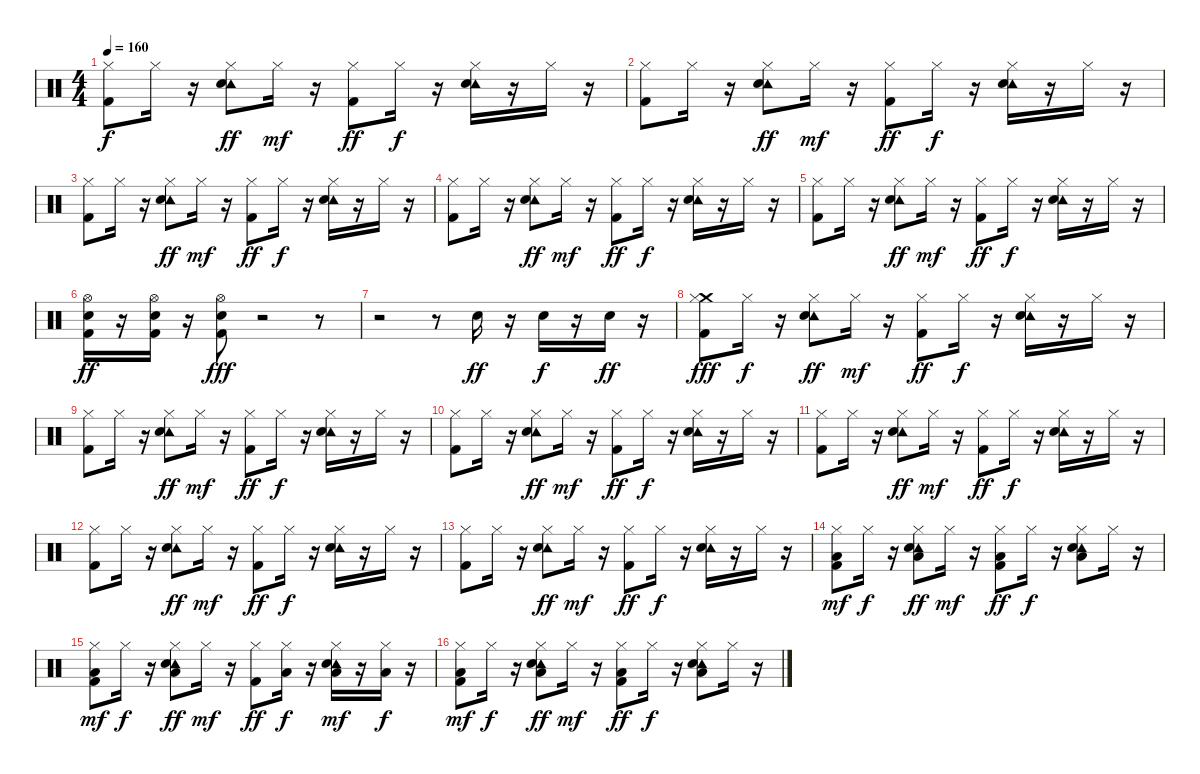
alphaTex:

\track "" {instrument percussion}
\staff {score}
\articulation defaults
\ts (4 4)
\tempo 160
\clef neutral
\ks c
("Hi-Hat (closed)" "Kick (hit) 2").8{dy f} "Hi-Hat (closed)".16 r.16 ("Tambourine (hit)" "Hi-Hat (closed)" "Snare (hit) 2").8{dy ff} "Hi-Hat (closed)".16{dy mf} r.16 ("Hi-Hat (closed)" "Kick (hit) 2").8{dy ff} "Hi-Hat (closed)".16{dy f} r.16 ("Tambourine (hit)" "Hi-Hat (closed)" "Snare (hit) 2").16 r.16 "Hi-Hat (closed)".16 r.16 |
("Hi-Hat (closed)" "Kick (hit) 2").8 "Hi-Hat (closed)".16 r.16 ("Tambourine (hit)" "Hi-Hat (closed)" "Snare (hit) 2").8{dy ff} "Hi-Hat (closed)".16{dy mf} r.16 ("Hi-Hat (closed)" "Kick (hit) 2").8{dy ff} "Hi-Hat (closed)".16{dy f} r.16 ("Tambourine (hit)" "Hi-Hat (closed)" "Snare (hit) 2").16 r.16 "Hi-Hat (closed)".16 r.16 |
("Hi-Hat (closed)" "Kick (hit) 2").8 "Hi-Hat (closed)".16 r.16 ("Tambourine (hit)" "Hi-Hat (closed)" "Snare (hit) 2").8{dy ff} "Hi-Hat (closed)".16{dy mf} r.16 ("Hi-Hat (closed)" "Kick (hit) 2").8{dy ff} "Hi-Hat (closed)".16{dy f} r.16 ("Tambourine (hit)" "Hi-Hat (closed)" "Snare (hit) 2").16 r.16 "Hi-Hat (closed)".16 r.16 |
("Hi-Hat (closed)" "Kick (hit) 2").8 "Hi-Hat (closed)".16 r.16 ("Tambourine (hit)" "Hi-Hat (closed)" "Snare (hit) 2").8{dy ff} "Hi-Hat (closed)".16{dy mf} r.16 ("Hi-Hat (closed)" "Kick (hit) 2").8{dy ff} "Hi-Hat (closed)".16{dy f} r.16 ("Tambourine (hit)" "Hi-Hat (closed)" "Snare (hit) 2").16 r.16 "Hi-Hat (closed)".16 r.16 |
("Hi-Hat (closed)" "Kick (hit) 2").8 "Hi-Hat (closed)".16 r.16 ("Tambourine (hit)" "Hi-Hat (closed)" "Snare (hit) 2").8{dy ff} "Hi-Hat (closed)".16{dy mf} r.16 ("Hi-Hat (closed)" "Kick (hit) 2").8{dy ff} "Hi-Hat (closed)".16{dy f} r.16 ("Tambourine (hit)" "Hi-Hat (closed)" "Snare (hit) 2").16 r.16 "Hi-Hat (closed)".16 r.16 |
("Hi-Hat (open)" "Snare (hit) 2" "Kick (hit) 2").16{dy ff} r.16 ("Snare (hit) 2" "Kick (hit) 2" "Hi-Hat (open)").16 r.16 ("Snare (hit) 2" "Kick (hit) 2" "Hi-Hat (open)").8{dy fff} r.2 r.8 |
r.2 r.8 "Snare (hit) 2".16{dy ff} r.16 "Snare (hit) 2".16{dy f} r.16 "Snare (hit) 2".16{dy ff} r.16 |
("Crash medium (hit)" "Hi-Hat (closed)" "Kick (hit) 2").8{dy fff} "Hi-Hat (closed)".16{dy f} r.16 ("Tambourine (hit)" "Hi-Hat (closed)" "Snare (hit) 2").8{dy ff} "Hi-Hat (closed)".16{dy mf} r.16 ("Hi-Hat (closed)" "Kick (hit) 2").8{dy ff} "Hi-Hat (closed)".16{dy f} r.16 ("Tambourine (hit)" "Hi-Hat (closed)" "Snare (hit) 2").16 r.16 "Hi-Hat (closed)".16 r.16 |
("Hi-Hat (closed)" "Kick (hit) 2").8 "Hi-Hat (closed)".16 r.16 ("Tambourine (hit)" "Hi-Hat (closed)" "Snare (hit) 2").8{dy ff} "Hi-Hat (closed)".16{dy mf} r.16 ("Hi-Hat (closed)" "Kick (hit) 2").8{dy ff} "Hi-Hat (closed)".16{dy f} r.16 ("Tambourine (hit)" "Hi-Hat (closed)" "Snare (hit) 2").16 r.16 "Hi-Hat (closed)".16 r.16 |
("Hi-Hat (closed)" "Kick (hit) 2").8 "Hi-Hat (closed)".16 r.16 ("Tambourine (hit)" "Hi-Hat (closed)" "Snare (hit) 2").8{dy ff} "Hi-Hat (closed)".16{dy mf} r.16 ("Hi-Hat (closed)" "Kick (hit) 2").8{dy ff} "Hi-Hat (closed)".16{dy f} r.16 ("Tambourine (hit)" "Hi-Hat (closed)" "Snare (hit) 2").16 r.16 "Hi-Hat (closed)".16 r.16 |
("Hi-Hat (closed)" "Kick (hit) 2").8 "Hi-Hat (closed)".16 r.16 ("Tambourine (hit)" "Hi-Hat (closed)" "Snare (hit) 2").8{dy ff} "Hi-Hat (closed)".16{dy mf} r.16 ("Hi-Hat (closed)" "Kick (hit) 2").8{dy ff} "Hi-Hat (closed)".16{dy f} r.16 ("Tambourine (hit)" "Hi-Hat (closed)" "Snare (hit) 2").16 r.16 "Hi-Hat (closed)".16 r.16 |
("Hi-Hat (closed)" "Kick (hit) 2").8 "Hi-Hat (closed)".16 r.16 ("Tambourine (hit)" "Hi-Hat (closed)" "Snare (hit) 2").8{dy ff} "Hi-Hat (closed)".16{dy mf} r.16 ("Hi-Hat (closed)" "Kick (hit) 2").8{dy ff} "Hi-Hat (closed)".16{dy f} r.16 ("Tambourine (hit)" "Hi-Hat (closed)" "Snare (hit) 2").16 r.16 "Hi-Hat (closed)".16 r.16 |
("Hi-Hat (closed)" "Kick (hit) 2").8 "Hi-Hat (closed)".16 r.16 ("Tambourine (hit)" "Hi-Hat (closed)" "Snare (hit) 2").8{dy ff} "Hi-Hat (closed)".16{dy mf} r.16 ("Hi-Hat (closed)" "Kick (hit) 2").8{dy ff} "Hi-Hat (closed)".16{dy f} r.16 ("Tambourine (hit)" "Hi-Hat (closed)" "Snare (hit) 2").16 r.16 "Hi-Hat (closed)".16 r.16 |
("Low Floor Tom (hit)" "Hi-Hat (closed)" "Kick (hit) 2").8{dy mf} "Hi-Hat (closed)".16{dy f} r.16 ("Low Floor Tom (hit)" "Tambourine (hit)" "Hi-Hat (closed)" "Snare (hit) 2").8{dy ff} "Hi-Hat (closed)".16{dy mf} r.16 ("Low Floor Tom (hit)" "Hi-Hat (closed)" "Kick (hit) 2").8{dy ff} "Hi-Hat (closed)".16{dy f} r.16 ("Low Floor Tom (hit)" "Tambourine (hit)" "Hi-Hat (closed)" "Snare (hit) 2").8 "Hi-Hat (closed)".16 r.16 |
("Low Floor Tom (hit)" "Hi-Hat (closed)" "Kick (hit) 2").8{dy mf} "Hi-Hat (closed)".16{dy f} r.16 ("Low Floor Tom (hit)" "Tambourine (hit)" "Hi-Hat (closed)" "Snare (hit) 2").8{dy ff} "Hi-Hat (closed)".16{dy mf} r.16 ("Hi-Hat (closed)" "Kick (hit) 2").8{dy ff} ("Low Floor Tom (hit)" "Hi-Hat (closed)").16{dy f} r.16 ("Low Floor Tom (hit)" "Tambourine (hit)" "Hi-Hat (closed)" "Snare (hit) 2").16{dy mf} r.16 ("Low Floor Tom (hit)" "Hi-Hat (closed)").16{dy f} r.16 |
("Low Floor Tom (hit)" "Hi-Hat (closed)" "Kick (hit) 2").8{dy mf} "Hi-Hat (closed)".16{dy f} r.16 ("Low Floor Tom (hit)" "Tambourine (hit)" "Hi-Hat (closed)" "Snare (hit) 2").8{dy ff} "Hi-Hat (closed)".16{dy mf} r.16 ("Low Floor Tom (hit)" "Hi-Hat (closed)" "Kick (hit) 2").8{dy ff} "Hi-Hat (closed)".16{dy f} r.16 ("Low Floor Tom (hit)" "Tambourine (hit)" "Hi-Hat (closed)" "Snare (hit) 2").8 "Hi-Hat (closed)".16 r.16
